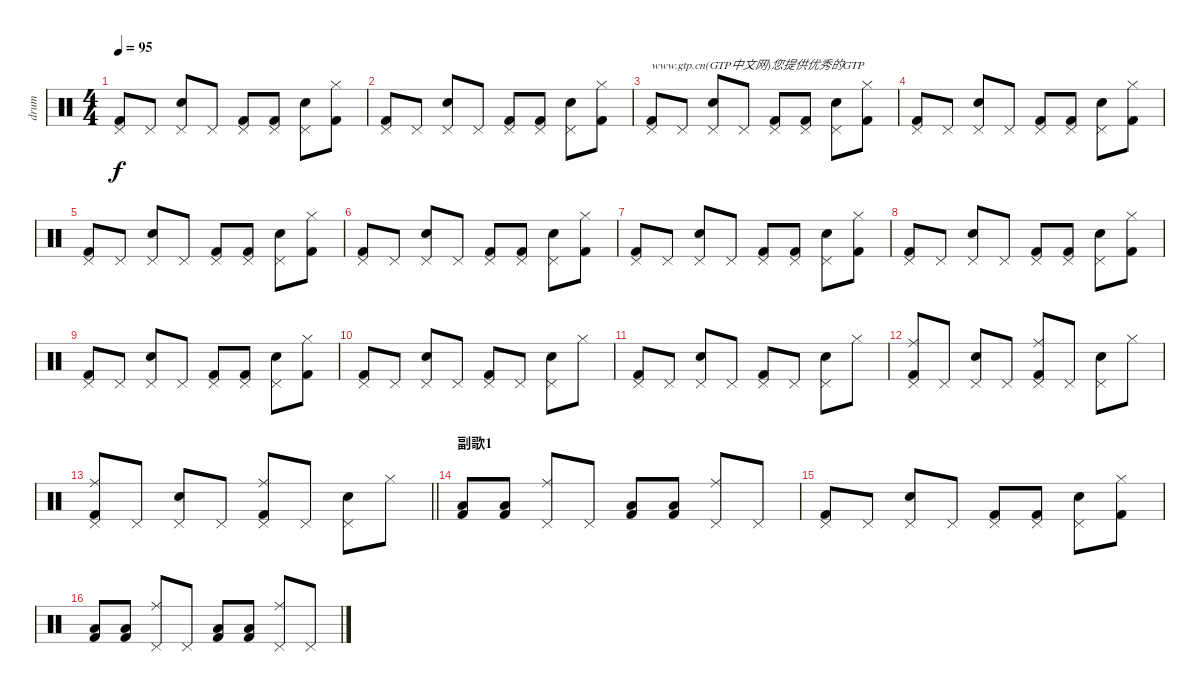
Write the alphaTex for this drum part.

\track ("drum" "drum") {instrument percussion}
\staff {score}
\articulation defaults
\ts (4 4)
\tempo 95
\clef neutral
\ks c
("Pedal Hi-Hat (hit)" "Kick (hit) 2").8{dy f} "Pedal Hi-Hat (hit)".8 ("Pedal Hi-Hat (hit)" "Hand Clap (hit)").8 "Pedal Hi-Hat (hit)".8 ("Pedal Hi-Hat (hit)" "Kick (hit) 2").8 ("Pedal Hi-Hat (hit)" "Kick (hit) 2").8 ("Pedal Hi-Hat (hit)" "Hand Clap (hit)").8 ("Hi-Hat (closed)" "Kick (hit) 2").8 |
("Pedal Hi-Hat (hit)" "Kick (hit) 2").8 "Pedal Hi-Hat (hit)".8 ("Pedal Hi-Hat (hit)" "Hand Clap (hit)").8 "Pedal Hi-Hat (hit)".8 ("Pedal Hi-Hat (hit)" "Kick (hit) 2").8 ("Pedal Hi-Hat (hit)" "Kick (hit) 2").8 ("Pedal Hi-Hat (hit)" "Hand Clap (hit)").8 ("Hi-Hat (closed)" "Kick (hit) 2").8 |
("Pedal Hi-Hat (hit)" "Kick (hit) 2").8{txt "www.gtp.cn(GTP中文网)您提供优秀的GTP"} "Pedal Hi-Hat (hit)".8 ("Pedal Hi-Hat (hit)" "Hand Clap (hit)").8 "Pedal Hi-Hat (hit)".8 ("Pedal Hi-Hat (hit)" "Kick (hit) 2").8 ("Pedal Hi-Hat (hit)" "Kick (hit) 2").8 ("Pedal Hi-Hat (hit)" "Hand Clap (hit)").8 ("Hi-Hat (closed)" "Kick (hit) 2").8 |
("Pedal Hi-Hat (hit)" "Kick (hit) 2").8 "Pedal Hi-Hat (hit)".8 ("Pedal Hi-Hat (hit)" "Hand Clap (hit)").8 "Pedal Hi-Hat (hit)".8 ("Pedal Hi-Hat (hit)" "Kick (hit) 2").8 ("Pedal Hi-Hat (hit)" "Kick (hit) 2").8 ("Pedal Hi-Hat (hit)" "Hand Clap (hit)").8 ("Hi-Hat (closed)" "Kick (hit) 2").8 |
("Pedal Hi-Hat (hit)" "Kick (hit) 2").8 "Pedal Hi-Hat (hit)".8 ("Pedal Hi-Hat (hit)" "Hand Clap (hit)").8 "Pedal Hi-Hat (hit)".8 ("Pedal Hi-Hat (hit)" "Kick (hit) 2").8 ("Pedal Hi-Hat (hit)" "Kick (hit) 2").8 ("Pedal Hi-Hat (hit)" "Hand Clap (hit)").8 ("Hi-Hat (closed)" "Kick (hit) 2").8 |
("Pedal Hi-Hat (hit)" "Kick (hit) 2").8 "Pedal Hi-Hat (hit)".8 ("Pedal Hi-Hat (hit)" "Hand Clap (hit)").8 "Pedal Hi-Hat (hit)".8 ("Pedal Hi-Hat (hit)" "Kick (hit) 2").8 ("Pedal Hi-Hat (hit)" "Kick (hit) 2").8 ("Pedal Hi-Hat (hit)" "Hand Clap (hit)").8 ("Hi-Hat (closed)" "Kick (hit) 2").8 |
("Pedal Hi-Hat (hit)" "Kick (hit) 2").8 "Pedal Hi-Hat (hit)".8 ("Pedal Hi-Hat (hit)" "Hand Clap (hit)").8 "Pedal Hi-Hat (hit)".8 ("Pedal Hi-Hat (hit)" "Kick (hit) 2").8 ("Pedal Hi-Hat (hit)" "Kick (hit) 2").8 ("Pedal Hi-Hat (hit)" "Hand Clap (hit)").8 ("Hi-Hat (closed)" "Kick (hit) 2").8 |
("Pedal Hi-Hat (hit)" "Kick (hit) 2").8 "Pedal Hi-Hat (hit)".8 ("Pedal Hi-Hat (hit)" "Hand Clap (hit)").8 "Pedal Hi-Hat (hit)".8 ("Pedal Hi-Hat (hit)" "Kick (hit) 2").8 ("Pedal Hi-Hat (hit)" "Kick (hit) 2").8 ("Pedal Hi-Hat (hit)" "Hand Clap (hit)").8 ("Hi-Hat (closed)" "Kick (hit) 2").8 |
("Pedal Hi-Hat (hit)" "Kick (hit) 2").8 "Pedal Hi-Hat (hit)".8 ("Pedal Hi-Hat (hit)" "Hand Clap (hit)").8 "Pedal Hi-Hat (hit)".8 ("Pedal Hi-Hat (hit)" "Kick (hit) 2").8 ("Pedal Hi-Hat (hit)" "Kick (hit) 2").8 ("Pedal Hi-Hat (hit)" "Hand Clap (hit)").8 ("Hi-Hat (closed)" "Kick (hit) 2").8 |
("Pedal Hi-Hat (hit)" "Kick (hit) 2").8 "Pedal Hi-Hat (hit)".8 ("Pedal Hi-Hat (hit)" "Hand Clap (hit)").8 "Pedal Hi-Hat (hit)".8 ("Pedal Hi-Hat (hit)" "Kick (hit) 2").8 "Pedal Hi-Hat (hit)".8 ("Pedal Hi-Hat (hit)" "Hand Clap (hit)").8 "Hi-Hat (closed)".8 |
("Pedal Hi-Hat (hit)" "Kick (hit) 2").8 "Pedal Hi-Hat (hit)".8 ("Pedal Hi-Hat (hit)" "Hand Clap (hit)").8 "Pedal Hi-Hat (hit)".8 ("Pedal Hi-Hat (hit)" "Kick (hit) 2").8 "Pedal Hi-Hat (hit)".8 ("Pedal Hi-Hat (hit)" "Hand Clap (hit)").8 "Hi-Hat (closed)".8 |
("Pedal Hi-Hat (hit)" "Kick (hit) 2" "Ride (middle)").8 "Pedal Hi-Hat (hit)".8 ("Pedal Hi-Hat (hit)" "Hand Clap (hit)").8 "Pedal Hi-Hat (hit)".8 ("Pedal Hi-Hat (hit)" "Kick (hit) 2" "Ride (middle)").8 "Pedal Hi-Hat (hit)".8 ("Pedal Hi-Hat (hit)" "Hand Clap (hit)").8 "Hi-Hat (closed)".8 |
\barLineRight lightlight
("Pedal Hi-Hat (hit)" "Kick (hit) 2" "Ride (middle)").8 "Pedal Hi-Hat (hit)".8 ("Pedal Hi-Hat (hit)" "Hand Clap (hit)").8 "Pedal Hi-Hat (hit)".8 ("Pedal Hi-Hat (hit)" "Kick (hit) 2" "Ride (middle)").8 "Pedal Hi-Hat (hit)".8 ("Pedal Hi-Hat (hit)" "Hand Clap (hit)").8 "Hi-Hat (closed)".8 |
\section ("" "副歌1")
("Kick (hit) 2" "Low Tom (hit)").8 ("Kick (hit) 2" "Low Tom (hit)").8 ("Pedal Hi-Hat (hit)" "Ride (middle)").8 "Pedal Hi-Hat (hit)".8 ("Kick (hit) 2" "Low Tom (hit)").8 ("Kick (hit) 2" "Low Tom (hit)").8 ("Pedal Hi-Hat (hit)" "Ride (middle)").8 "Pedal Hi-Hat (hit)".8 |
("Pedal Hi-Hat (hit)" "Kick (hit) 2").8 "Pedal Hi-Hat (hit)".8 ("Pedal Hi-Hat (hit)" "Hand Clap (hit)").8 "Pedal Hi-Hat (hit)".8 ("Pedal Hi-Hat (hit)" "Kick (hit) 2").8 ("Pedal Hi-Hat (hit)" "Kick (hit) 2").8 ("Pedal Hi-Hat (hit)" "Hand Clap (hit)").8 ("Hi-Hat (closed)" "Kick (hit) 2").8 |
("Kick (hit) 2" "Low Tom (hit)").8 ("Kick (hit) 2" "Low Tom (hit)").8 ("Pedal Hi-Hat (hit)" "Ride (middle)").8 "Pedal Hi-Hat (hit)".8 ("Kick (hit) 2" "Low Tom (hit)").8 ("Kick (hit) 2" "Low Tom (hit)").8 ("Pedal Hi-Hat (hit)" "Ride (middle)").8 "Pedal Hi-Hat (hit)".8
